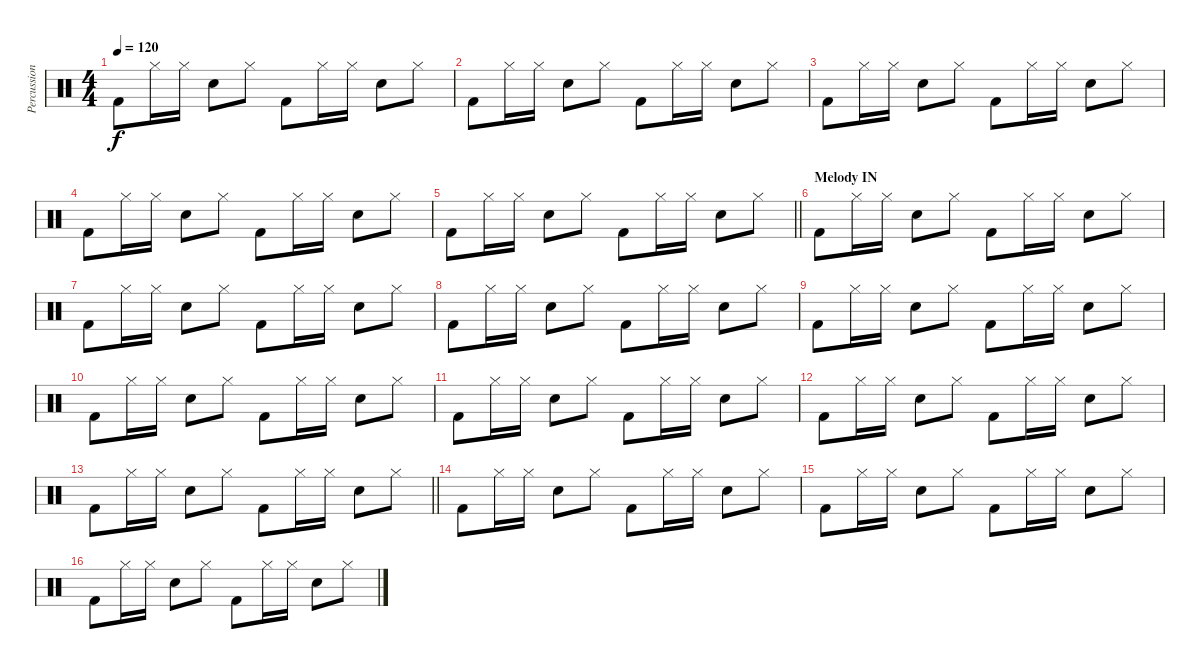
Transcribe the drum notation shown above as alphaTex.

\track ("Percussion" "Percussion") {instrument percussion}
\staff {score}
\articulation defaults
\ts (4 4)
\tempo 120
\clef neutral
\ks c "Kick (hit) 2".8{dy f} "Hi-Hat (closed)".16 "Hi-Hat (closed)".16 "Snare (hit) 2".8 "Hi-Hat (closed)".8 "Kick (hit) 2".8 "Hi-Hat (closed)".16 "Hi-Hat (closed)".16 "Snare (hit) 2".8 "Hi-Hat (closed)".8
|
"Kick (hit) 2".8 "Hi-Hat (closed)".16 "Hi-Hat (closed)".16 "Snare (hit) 2".8 "Hi-Hat (closed)".8 "Kick (hit) 2".8 "Hi-Hat (closed)".16 "Hi-Hat (closed)".16 "Snare (hit) 2".8 "Hi-Hat (closed)".8 |
"Kick (hit) 2".8 "Hi-Hat (closed)".16 "Hi-Hat (closed)".16 "Snare (hit) 2".8 "Hi-Hat (closed)".8 "Kick (hit) 2".8 "Hi-Hat (closed)".16 "Hi-Hat (closed)".16 "Snare (hit) 2".8 "Hi-Hat (closed)".8 |
"Kick (hit) 2".8 "Hi-Hat (closed)".16 "Hi-Hat (closed)".16 "Snare (hit) 2".8 "Hi-Hat (closed)".8 "Kick (hit) 2".8 "Hi-Hat (closed)".16 "Hi-Hat (closed)".16 "Snare (hit) 2".8 "Hi-Hat (closed)".8 |
\barLineRight lightlight "Kick (hit) 2".8 "Hi-Hat (closed)".16 "Hi-Hat (closed)".16 "Snare (hit) 2".8 "Hi-Hat (closed)".8 "Kick (hit) 2".8 "Hi-Hat (closed)".16 "Hi-Hat (closed)".16 "Snare (hit) 2".8 "Hi-Hat (closed)".8
|
\section ("" "Melody IN")
"Kick (hit) 2".8 "Hi-Hat (closed)".16 "Hi-Hat (closed)".16 "Snare (hit) 2".8 "Hi-Hat (closed)".8 "Kick (hit) 2".8 "Hi-Hat (closed)".16 "Hi-Hat (closed)".16 "Snare (hit) 2".8 "Hi-Hat (closed)".8 |
"Kick (hit) 2".8 "Hi-Hat (closed)".16 "Hi-Hat (closed)".16 "Snare (hit) 2".8 "Hi-Hat (closed)".8 "Kick (hit) 2".8 "Hi-Hat (closed)".16 "Hi-Hat (closed)".16 "Snare (hit) 2".8 "Hi-Hat (closed)".8 |
"Kick (hit) 2".8 "Hi-Hat (closed)".16 "Hi-Hat (closed)".16 "Snare (hit) 2".8 "Hi-Hat (closed)".8 "Kick (hit) 2".8 "Hi-Hat (closed)".16 "Hi-Hat (closed)".16 "Snare (hit) 2".8 "Hi-Hat (closed)".8 |
"Kick (hit) 2".8 "Hi-Hat (closed)".16 "Hi-Hat (closed)".16 "Snare (hit) 2".8 "Hi-Hat (closed)".8 "Kick (hit) 2".8 "Hi-Hat (closed)".16 "Hi-Hat (closed)".16 "Snare (hit) 2".8 "Hi-Hat (closed)".8 |
"Kick (hit) 2".8 "Hi-Hat (closed)".16 "Hi-Hat (closed)".16 "Snare (hit) 2".8 "Hi-Hat (closed)".8 "Kick (hit) 2".8 "Hi-Hat (closed)".16 "Hi-Hat (closed)".16 "Snare (hit) 2".8 "Hi-Hat (closed)".8 |
"Kick (hit) 2".8 "Hi-Hat (closed)".16 "Hi-Hat (closed)".16 "Snare (hit) 2".8 "Hi-Hat (closed)".8 "Kick (hit) 2".8 "Hi-Hat (closed)".16 "Hi-Hat (closed)".16 "Snare (hit) 2".8 "Hi-Hat (closed)".8 |
"Kick (hit) 2".8 "Hi-Hat (closed)".16 "Hi-Hat (closed)".16 "Snare (hit) 2".8 "Hi-Hat (closed)".8 "Kick (hit) 2".8 "Hi-Hat (closed)".16 "Hi-Hat (closed)".16 "Snare (hit) 2".8 "Hi-Hat (closed)".8 |
\barLineRight lightlight "Kick (hit) 2".8 "Hi-Hat (closed)".16 "Hi-Hat (closed)".16 "Snare (hit) 2".8 "Hi-Hat (closed)".8 "Kick (hit) 2".8 "Hi-Hat (closed)".16 "Hi-Hat (closed)".16 "Snare (hit) 2".8 "Hi-Hat (closed)".8
|
"Kick (hit) 2".8 "Hi-Hat (closed)".16 "Hi-Hat (closed)".16 "Snare (hit) 2".8 "Hi-Hat (closed)".8 "Kick (hit) 2".8 "Hi-Hat (closed)".16 "Hi-Hat (closed)".16 "Snare (hit) 2".8 "Hi-Hat (closed)".8 |
"Kick (hit) 2".8 "Hi-Hat (closed)".16 "Hi-Hat (closed)".16 "Snare (hit) 2".8 "Hi-Hat (closed)".8 "Kick (hit) 2".8 "Hi-Hat (closed)".16 "Hi-Hat (closed)".16 "Snare (hit) 2".8 "Hi-Hat (closed)".8 |
"Kick (hit) 2".8 "Hi-Hat (closed)".16 "Hi-Hat (closed)".16 "Snare (hit) 2".8 "Hi-Hat (closed)".8 "Kick (hit) 2".8 "Hi-Hat (closed)".16 "Hi-Hat (closed)".16 "Snare (hit) 2".8 "Hi-Hat (closed)".8
